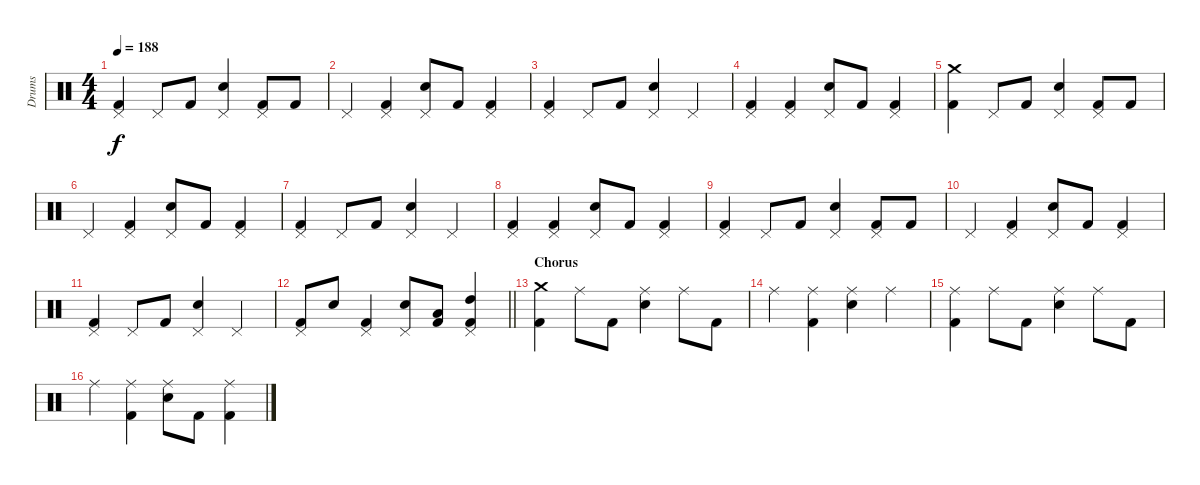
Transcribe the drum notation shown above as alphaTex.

\track ("Drums" "Drums") {instrument percussion}
\staff {score}
\articulation defaults
\ts (4 4)
\tempo 188
\clef neutral
\ks c
("Pedal Hi-Hat (hit)" "Kick (hit) 2").4{dy f} "Pedal Hi-Hat (hit)".8 "Kick (hit) 2".8 ("Pedal Hi-Hat (hit)" "Electric Snare (hit)").4 ("Pedal Hi-Hat (hit)" "Kick (hit) 2").8 "Kick (hit) 2".8 |
"Pedal Hi-Hat (hit)".4 ("Pedal Hi-Hat (hit)" "Kick (hit) 2").4 ("Pedal Hi-Hat (hit)" "Electric Snare (hit)").8 "Kick (hit) 2".8 ("Pedal Hi-Hat (hit)" "Kick (hit) 2").4 |
("Pedal Hi-Hat (hit)" "Kick (hit) 2").4 "Pedal Hi-Hat (hit)".8 "Kick (hit) 2".8 ("Pedal Hi-Hat (hit)" "Electric Snare (hit)").4 "Pedal Hi-Hat (hit)".4 |
("Pedal Hi-Hat (hit)" "Kick (hit) 2").4 ("Pedal Hi-Hat (hit)" "Kick (hit) 2").4 ("Pedal Hi-Hat (hit)" "Electric Snare (hit)").8 "Kick (hit) 2".8 ("Pedal Hi-Hat (hit)" "Kick (hit) 2").4 |
("Crash medium (hit)" "Kick (hit) 2").4 "Pedal Hi-Hat (hit)".8 "Kick (hit) 2".8 ("Pedal Hi-Hat (hit)" "Electric Snare (hit)").4 ("Pedal Hi-Hat (hit)" "Kick (hit) 2").8 "Kick (hit) 2".8 |
"Pedal Hi-Hat (hit)".4 ("Pedal Hi-Hat (hit)" "Kick (hit) 2").4 ("Pedal Hi-Hat (hit)" "Electric Snare (hit)").8 "Kick (hit) 2".8 ("Pedal Hi-Hat (hit)" "Kick (hit) 2").4 |
("Pedal Hi-Hat (hit)" "Kick (hit) 2").4 "Pedal Hi-Hat (hit)".8 "Kick (hit) 2".8 ("Pedal Hi-Hat (hit)" "Electric Snare (hit)").4 "Pedal Hi-Hat (hit)".4 |
("Pedal Hi-Hat (hit)" "Kick (hit) 2").4 ("Pedal Hi-Hat (hit)" "Kick (hit) 2").4 ("Pedal Hi-Hat (hit)" "Electric Snare (hit)").8 "Kick (hit) 2".8 ("Pedal Hi-Hat (hit)" "Kick (hit) 2").4 |
("Pedal Hi-Hat (hit)" "Kick (hit) 2").4 "Pedal Hi-Hat (hit)".8 "Kick (hit) 2".8 ("Pedal Hi-Hat (hit)" "Electric Snare (hit)").4 ("Pedal Hi-Hat (hit)" "Kick (hit) 2").8 "Kick (hit) 2".8 |
"Pedal Hi-Hat (hit)".4 ("Pedal Hi-Hat (hit)" "Kick (hit) 2").4 ("Pedal Hi-Hat (hit)" "Electric Snare (hit)").8 "Kick (hit) 2".8 ("Pedal Hi-Hat (hit)" "Kick (hit) 2").4 |
("Pedal Hi-Hat (hit)" "Kick (hit) 2").4 "Pedal Hi-Hat (hit)".8 "Kick (hit) 2".8 ("Pedal Hi-Hat (hit)" "Electric Snare (hit)").4 "Pedal Hi-Hat (hit)".4 |
\barLineRight lightlight
("Pedal Hi-Hat (hit)" "Kick (hit) 2").8 "Electric Snare (hit)".8 ("Pedal Hi-Hat (hit)" "Kick (hit) 2").4 ("Pedal Hi-Hat (hit)" "Electric Snare (hit)").8 ("Low Tom (hit)" "Kick (hit) 2").8 ("Pedal Hi-Hat (hit)" "High Tom (hit)" "Kick (hit) 2").4 |
\section ("" "Chorus")
("Crash medium (hit)" "Kick (hit) 2").4 "Ride (middle)".8 "Kick (hit) 2".8 ("Ride (middle)" "Electric Snare (hit)").4 "Ride (middle)".8 "Kick (hit) 2".8 |
"Ride (middle)".4 ("Ride (middle)" "Kick (hit) 2").4 ("Ride (middle)" "Electric Snare (hit)").4 "Ride (middle)".4 |
("Ride (middle)" "Kick (hit) 2").4 "Ride (middle)".8 "Kick (hit) 2".8 ("Ride (middle)" "Electric Snare (hit)").4 "Ride (middle)".8 "Kick (hit) 2".8 |
"Ride (middle)".4 ("Ride (middle)" "Kick (hit) 2").4 ("Ride (middle)" "Electric Snare (hit)").8 "Kick (hit) 2".8 ("Ride (middle)" "Kick (hit) 2").4
